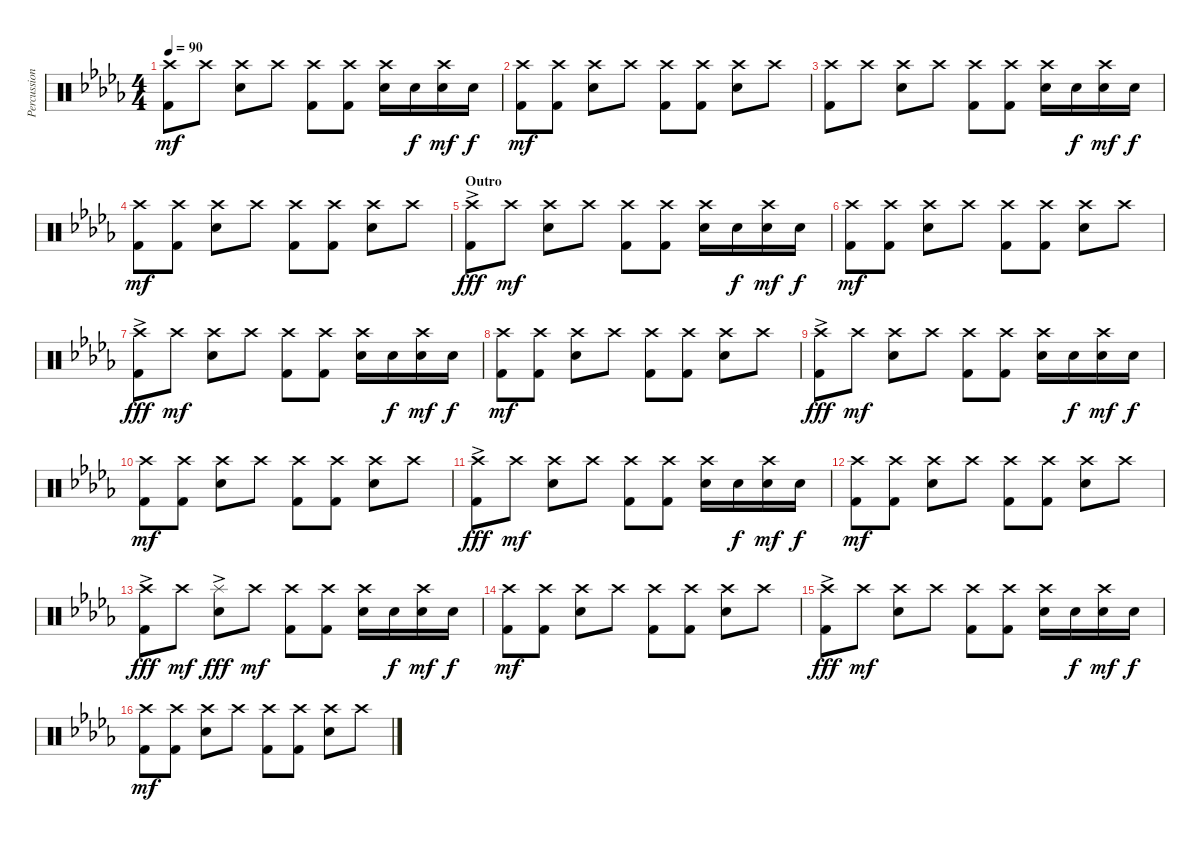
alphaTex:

\track ("Percussion" "Percussion") {instrument percussion}
\staff {score}
\articulation defaults
\ts (4 4)
\tempo 90
\clef neutral
\ks db
("Crash high (hit)" "Kick (hit) 2").8{dy mf} "Crash high (hit)".8 ("Crash high (hit)" "Snare (hit) 2").8 "Crash high (hit)".8 ("Crash high (hit)" "Kick (hit) 2").8 ("Crash high (hit)" "Kick (hit) 2").8 ("Crash high (hit)" "Snare (hit) 2").16 "Snare (hit) 2".16{dy f} ("Crash high (hit)" "Snare (hit) 2").16{dy mf} "Snare (hit) 2".16{dy f} |
("Crash high (hit)" "Kick (hit) 2").8{dy mf} ("Crash high (hit)" "Kick (hit) 2").8 ("Crash high (hit)" "Snare (hit) 2").8 "Crash high (hit)".8 ("Crash high (hit)" "Kick (hit) 2").8 ("Crash high (hit)" "Kick (hit) 2").8 ("Crash high (hit)" "Snare (hit) 2").8 "Crash high (hit)".8 |
("Crash high (hit)" "Kick (hit) 2").8 "Crash high (hit)".8 ("Crash high (hit)" "Snare (hit) 2").8 "Crash high (hit)".8 ("Crash high (hit)" "Kick (hit) 2").8 ("Crash high (hit)" "Kick (hit) 2").8 ("Crash high (hit)" "Snare (hit) 2").16 "Snare (hit) 2".16{dy f} ("Crash high (hit)" "Snare (hit) 2").16{dy mf} "Snare (hit) 2".16{dy f} |
("Crash high (hit)" "Kick (hit) 2").8{dy mf} ("Crash high (hit)" "Kick (hit) 2").8 ("Crash high (hit)" "Snare (hit) 2").8 "Crash high (hit)".8 ("Crash high (hit)" "Kick (hit) 2").8 ("Crash high (hit)" "Kick (hit) 2").8 ("Crash high (hit)" "Snare (hit) 2").8 "Crash high (hit)".8 |
\section ("" "Outro")
("Crash high (hit)"{ac} "Kick (hit) 2").8{dy fff} "Crash high (hit)".8{dy mf} ("Crash high (hit)" "Snare (hit) 2").8 "Crash high (hit)".8 ("Crash high (hit)" "Kick (hit) 2").8 ("Crash high (hit)" "Kick (hit) 2").8 ("Crash high (hit)" "Snare (hit) 2").16 "Snare (hit) 2".16{dy f} ("Crash high (hit)" "Snare (hit) 2").16{dy mf} "Snare (hit) 2".16{dy f} |
("Crash high (hit)" "Kick (hit) 2").8{dy mf} ("Crash high (hit)" "Kick (hit) 2").8 ("Crash high (hit)" "Snare (hit) 2").8 "Crash high (hit)".8 ("Crash high (hit)" "Kick (hit) 2").8 ("Crash high (hit)" "Kick (hit) 2").8 ("Crash high (hit)" "Snare (hit) 2").8 "Crash high (hit)".8 |
("Crash high (hit)"{ac} "Kick (hit) 2").8{dy fff} "Crash high (hit)".8{dy mf} ("Crash high (hit)" "Snare (hit) 2").8 "Crash high (hit)".8 ("Crash high (hit)" "Kick (hit) 2").8 ("Crash high (hit)" "Kick (hit) 2").8 ("Crash high (hit)" "Snare (hit) 2").16 "Snare (hit) 2".16{dy f} ("Crash high (hit)" "Snare (hit) 2").16{dy mf} "Snare (hit) 2".16{dy f} |
("Crash high (hit)" "Kick (hit) 2").8{dy mf} ("Crash high (hit)" "Kick (hit) 2").8 ("Crash high (hit)" "Snare (hit) 2").8 "Crash high (hit)".8 ("Crash high (hit)" "Kick (hit) 2").8 ("Crash high (hit)" "Kick (hit) 2").8 ("Crash high (hit)" "Snare (hit) 2").8 "Crash high (hit)".8 |
("Crash high (hit)"{ac} "Kick (hit) 2").8{dy fff} "Crash high (hit)".8{dy mf} ("Crash high (hit)" "Snare (hit) 2").8 "Crash high (hit)".8 ("Crash high (hit)" "Kick (hit) 2").8 ("Crash high (hit)" "Kick (hit) 2").8 ("Crash high (hit)" "Snare (hit) 2").16 "Snare (hit) 2".16{dy f} ("Crash high (hit)" "Snare (hit) 2").16{dy mf} "Snare (hit) 2".16{dy f} |
("Crash high (hit)" "Kick (hit) 2").8{dy mf} ("Crash high (hit)" "Kick (hit) 2").8 ("Crash high (hit)" "Snare (hit) 2").8 "Crash high (hit)".8 ("Crash high (hit)" "Kick (hit) 2").8 ("Crash high (hit)" "Kick (hit) 2").8 ("Crash high (hit)" "Snare (hit) 2").8 "Crash high (hit)".8 |
("Crash high (hit)"{ac} "Kick (hit) 2").8{dy fff} "Crash high (hit)".8{dy mf} ("Crash high (hit)" "Snare (hit) 2").8 "Crash high (hit)".8 ("Crash high (hit)" "Kick (hit) 2").8 ("Crash high (hit)" "Kick (hit) 2").8 ("Crash high (hit)" "Snare (hit) 2").16 "Snare (hit) 2".16{dy f} ("Crash high (hit)" "Snare (hit) 2").16{dy mf} "Snare (hit) 2".16{dy f} |
("Crash high (hit)" "Kick (hit) 2").8{dy mf} ("Crash high (hit)" "Kick (hit) 2").8 ("Crash high (hit)" "Snare (hit) 2").8 "Crash high (hit)".8 ("Crash high (hit)" "Kick (hit) 2").8 ("Crash high (hit)" "Kick (hit) 2").8 ("Crash high (hit)" "Snare (hit) 2").8 "Crash high (hit)".8 |
("Crash high (hit)"{ac} "Kick (hit) 2").8{dy fff} "Crash high (hit)".8{dy mf} ("Splash (hit)"{ac} "Snare (hit) 2").8{dy fff} "Crash high (hit)".8{dy mf} ("Crash high (hit)" "Kick (hit) 2").8 ("Crash high (hit)" "Kick (hit) 2").8 ("Crash high (hit)" "Snare (hit) 2").16 "Snare (hit) 2".16{dy f} ("Crash high (hit)" "Snare (hit) 2").16{dy mf} "Snare (hit) 2".16{dy f} |
("Crash high (hit)" "Kick (hit) 2").8{dy mf} ("Crash high (hit)" "Kick (hit) 2").8 ("Crash high (hit)" "Snare (hit) 2").8 "Crash high (hit)".8 ("Crash high (hit)" "Kick (hit) 2").8 ("Crash high (hit)" "Kick (hit) 2").8 ("Crash high (hit)" "Snare (hit) 2").8 "Crash high (hit)".8 |
("Crash high (hit)"{ac} "Kick (hit) 2").8{dy fff} "Crash high (hit)".8{dy mf} ("Crash high (hit)" "Snare (hit) 2").8 "Crash high (hit)".8 ("Crash high (hit)" "Kick (hit) 2").8 ("Crash high (hit)" "Kick (hit) 2").8 ("Crash high (hit)" "Snare (hit) 2").16 "Snare (hit) 2".16{dy f} ("Crash high (hit)" "Snare (hit) 2").16{dy mf} "Snare (hit) 2".16{dy f} |
("Crash high (hit)" "Kick (hit) 2").8{dy mf} ("Crash high (hit)" "Kick (hit) 2").8 ("Crash high (hit)" "Snare (hit) 2").8 "Crash high (hit)".8 ("Crash high (hit)" "Kick (hit) 2").8 ("Crash high (hit)" "Kick (hit) 2").8 ("Crash high (hit)" "Snare (hit) 2").8 "Crash high (hit)".8
